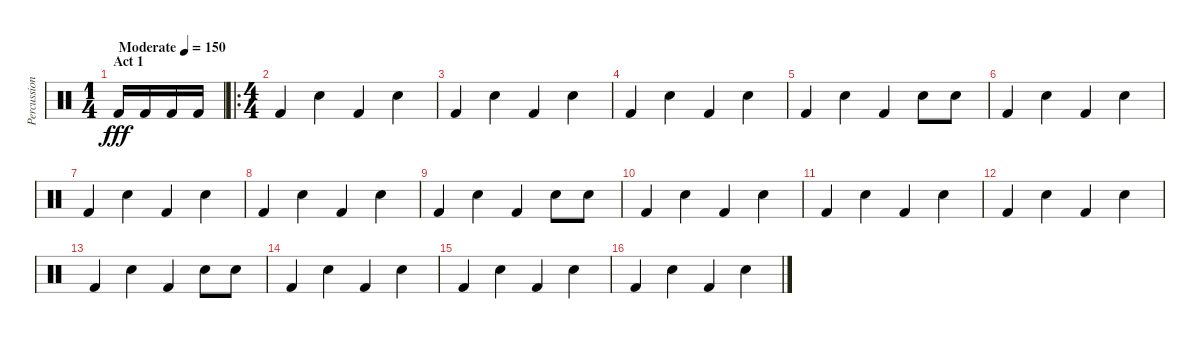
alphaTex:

\track ("Percussions" "Percussion") {instrument percussion}
\staff {score}
\articulation defaults
\ts (1 4)
\section ("" "Act 1")
\tempo (150 "Moderate")
\clef neutral
\ks c "Kick (hit) 2".16{dy fff} "Kick (hit) 2".16 "Kick (hit) 2".16 "Kick (hit) 2".16
|
\ro
\ts (4 4)
"Kick (hit) 2".4 "Snare (hit) 2".4 "Kick (hit) 2".4 "Snare (hit) 2".4 |
"Kick (hit) 2".4 "Snare (hit) 2".4 "Kick (hit) 2".4 "Snare (hit) 2".4 |
"Kick (hit) 2".4 "Snare (hit) 2".4 "Kick (hit) 2".4 "Snare (hit) 2".4 |
"Kick (hit) 2".4 "Snare (hit) 2".4 "Kick (hit) 2".4 "Snare (hit) 2".8 "Snare (hit) 2".8 |
"Kick (hit) 2".4 "Snare (hit) 2".4 "Kick (hit) 2".4 "Snare (hit) 2".4 |
"Kick (hit) 2".4 "Snare (hit) 2".4 "Kick (hit) 2".4 "Snare (hit) 2".4 |
"Kick (hit) 2".4 "Snare (hit) 2".4 "Kick (hit) 2".4 "Snare (hit) 2".4 |
"Kick (hit) 2".4 "Snare (hit) 2".4 "Kick (hit) 2".4 "Snare (hit) 2".8 "Snare (hit) 2".8 |
"Kick (hit) 2".4 "Snare (hit) 2".4 "Kick (hit) 2".4 "Snare (hit) 2".4 |
"Kick (hit) 2".4 "Snare (hit) 2".4 "Kick (hit) 2".4 "Snare (hit) 2".4 |
"Kick (hit) 2".4 "Snare (hit) 2".4 "Kick (hit) 2".4 "Snare (hit) 2".4 |
"Kick (hit) 2".4 "Snare (hit) 2".4 "Kick (hit) 2".4 "Snare (hit) 2".8 "Snare (hit) 2".8 |
"Kick (hit) 2".4 "Snare (hit) 2".4 "Kick (hit) 2".4 "Snare (hit) 2".4 |
"Kick (hit) 2".4 "Snare (hit) 2".4 "Kick (hit) 2".4 "Snare (hit) 2".4 |
"Kick (hit) 2".4 "Snare (hit) 2".4 "Kick (hit) 2".4 "Snare (hit) 2".4
